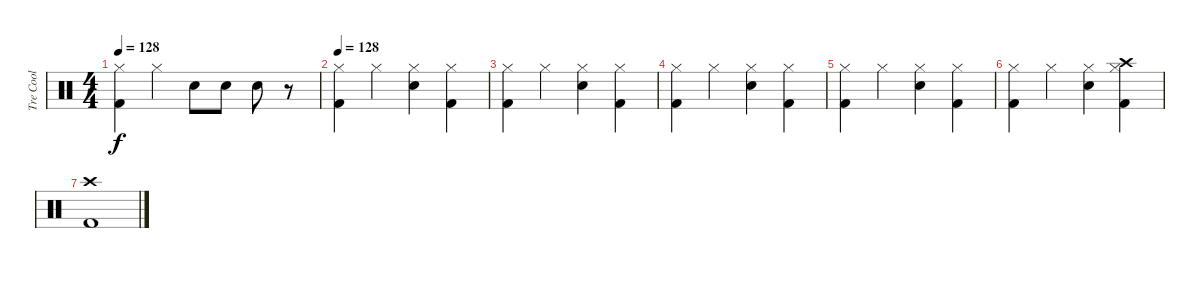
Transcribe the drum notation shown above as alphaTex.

\track ("Tre Cool" "Tre Cool") {instrument percussion}
\staff {score}
\articulation defaults
\ts (4 4)
\tempo 128
\clef neutral
\ks c
("Hi-Hat (closed)" "Kick (hit) 2").4{dy f} "Hi-Hat (closed)".4 "Snare (hit) 2".8 "Snare (hit) 2".8 "Snare (hit) 2".8 r.8 |
\tempo 128
("Hi-Hat (closed)" "Kick (hit) 2").4 "Hi-Hat (closed)".4 ("Hi-Hat (closed)" "Snare (hit) 2").4 ("Hi-Hat (closed)" "Kick (hit) 2").4 |
("Hi-Hat (closed)" "Kick (hit) 2").4 "Hi-Hat (closed)".4 ("Hi-Hat (closed)" "Snare (hit) 2").4 ("Hi-Hat (closed)" "Kick (hit) 2").4 |
("Hi-Hat (closed)" "Kick (hit) 2").4 "Hi-Hat (closed)".4 ("Hi-Hat (closed)" "Snare (hit) 2").4 ("Hi-Hat (closed)" "Kick (hit) 2").4 |
("Hi-Hat (closed)" "Kick (hit) 2").4 "Hi-Hat (closed)".4 ("Hi-Hat (closed)" "Snare (hit) 2").4 ("Hi-Hat (closed)" "Kick (hit) 2").4 |
("Hi-Hat (closed)" "Kick (hit) 2").4 "Hi-Hat (closed)".4 ("Hi-Hat (closed)" "Snare (hit) 2").4 ("Hi-Hat (closed)" "Kick (hit) 2" "Crash high (hit)").4 |
("Kick (hit) 2" "Crash high (hit)").1
